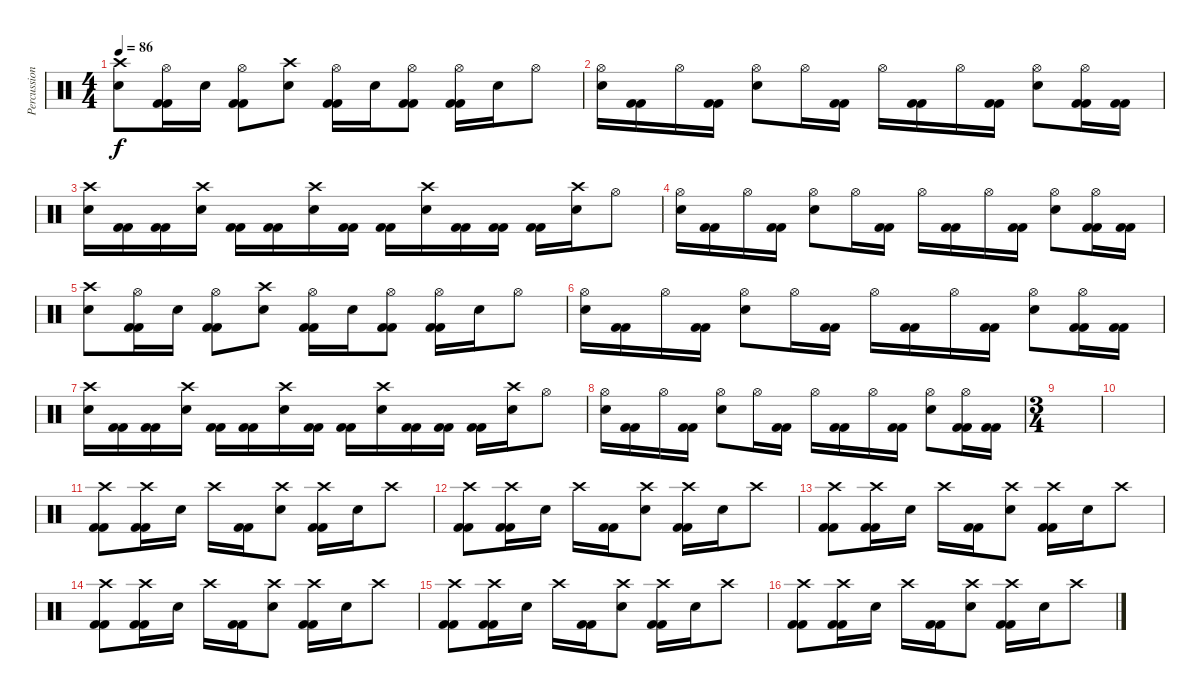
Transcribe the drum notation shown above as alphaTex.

\track ("Percussion" "Percussion") {instrument percussion}
\staff {score}
\articulation defaults
\ts (4 4)
\tempo 86
\clef neutral
\ks c
("Crash high (hit)" "Snare (hit) 2").8{dy f} ("Hi-Hat (open)" "Kick (hit) 2" "Kick (hit) 2").16 "Snare (hit) 2".16 ("Hi-Hat (open)" "Kick (hit) 2" "Kick (hit) 2").8 ("Crash high (hit)" "Snare (hit) 2").8 ("Hi-Hat (open)" "Kick (hit) 2" "Kick (hit) 2").16 "Snare (hit) 2".16 ("Hi-Hat (open)" "Kick (hit) 2" "Kick (hit) 2").8 ("Hi-Hat (open)" "Kick (hit) 2" "Kick (hit) 2").16 "Snare (hit) 2".16 "Hi-Hat (open)".8 |
("Hi-Hat (open)" "Snare (hit) 2").16 ("Kick (hit) 2" "Kick (hit) 2").16 "Hi-Hat (open)".16 ("Kick (hit) 2" "Kick (hit) 2").16 ("Hi-Hat (open)" "Snare (hit) 2").8 "Hi-Hat (open)".16 ("Kick (hit) 2" "Kick (hit) 2").16 "Hi-Hat (open)".16 ("Kick (hit) 2" "Kick (hit) 2").16 "Hi-Hat (open)".16 ("Kick (hit) 2" "Kick (hit) 2").16 ("Hi-Hat (open)" "Snare (hit) 2").8 ("Hi-Hat (open)" "Kick (hit) 2" "Kick (hit) 2").16 ("Kick (hit) 2" "Kick (hit) 2").16 |
("Crash high (hit)" "Snare (hit) 2").16 ("Kick (hit) 2" "Kick (hit) 2").16 ("Kick (hit) 2" "Kick (hit) 2").16 ("Crash high (hit)" "Snare (hit) 2").16 ("Kick (hit) 2" "Kick (hit) 2").16 ("Kick (hit) 2" "Kick (hit) 2").16 ("Crash high (hit)" "Snare (hit) 2").16 ("Kick (hit) 2" "Kick (hit) 2").16 ("Kick (hit) 2" "Kick (hit) 2").16 ("Crash high (hit)" "Snare (hit) 2").16 ("Kick (hit) 2" "Kick (hit) 2").16 ("Kick (hit) 2" "Kick (hit) 2").16 ("Kick (hit) 2" "Kick (hit) 2").16 ("Crash high (hit)" "Snare (hit) 2").16 "Hi-Hat (open)".8 |
("Hi-Hat (open)" "Snare (hit) 2").16 ("Kick (hit) 2" "Kick (hit) 2").16 "Hi-Hat (open)".16 ("Kick (hit) 2" "Kick (hit) 2").16 ("Hi-Hat (open)" "Snare (hit) 2").8 "Hi-Hat (open)".16 ("Kick (hit) 2" "Kick (hit) 2").16 "Hi-Hat (open)".16 ("Kick (hit) 2" "Kick (hit) 2").16 "Hi-Hat (open)".16 ("Kick (hit) 2" "Kick (hit) 2").16 ("Hi-Hat (open)" "Snare (hit) 2").8 ("Hi-Hat (open)" "Kick (hit) 2" "Kick (hit) 2").16 ("Kick (hit) 2" "Kick (hit) 2").16 |
("Crash high (hit)" "Snare (hit) 2").8 ("Hi-Hat (open)" "Kick (hit) 2" "Kick (hit) 2").16 "Snare (hit) 2".16 ("Hi-Hat (open)" "Kick (hit) 2" "Kick (hit) 2").8 ("Crash high (hit)" "Snare (hit) 2").8 ("Hi-Hat (open)" "Kick (hit) 2" "Kick (hit) 2").16 "Snare (hit) 2".16 ("Hi-Hat (open)" "Kick (hit) 2" "Kick (hit) 2").8 ("Hi-Hat (open)" "Kick (hit) 2" "Kick (hit) 2").16 "Snare (hit) 2".16 "Hi-Hat (open)".8 |
("Hi-Hat (open)" "Snare (hit) 2").16 ("Kick (hit) 2" "Kick (hit) 2").16 "Hi-Hat (open)".16 ("Kick (hit) 2" "Kick (hit) 2").16 ("Hi-Hat (open)" "Snare (hit) 2").8 "Hi-Hat (open)".16 ("Kick (hit) 2" "Kick (hit) 2").16 "Hi-Hat (open)".16 ("Kick (hit) 2" "Kick (hit) 2").16 "Hi-Hat (open)".16 ("Kick (hit) 2" "Kick (hit) 2").16 ("Hi-Hat (open)" "Snare (hit) 2").8 ("Hi-Hat (open)" "Kick (hit) 2" "Kick (hit) 2").16 ("Kick (hit) 2" "Kick (hit) 2").16 |
("Crash high (hit)" "Snare (hit) 2").16 ("Kick (hit) 2" "Kick (hit) 2").16 ("Kick (hit) 2" "Kick (hit) 2").16 ("Crash high (hit)" "Snare (hit) 2").16 ("Kick (hit) 2" "Kick (hit) 2").16 ("Kick (hit) 2" "Kick (hit) 2").16 ("Crash high (hit)" "Snare (hit) 2").16 ("Kick (hit) 2" "Kick (hit) 2").16 ("Kick (hit) 2" "Kick (hit) 2").16 ("Crash high (hit)" "Snare (hit) 2").16 ("Kick (hit) 2" "Kick (hit) 2").16 ("Kick (hit) 2" "Kick (hit) 2").16 ("Kick (hit) 2" "Kick (hit) 2").16 ("Crash high (hit)" "Snare (hit) 2").16 "Hi-Hat (open)".8 |
("Hi-Hat (open)" "Snare (hit) 2").16 ("Kick (hit) 2" "Kick (hit) 2").16 "Hi-Hat (open)".16 ("Kick (hit) 2" "Kick (hit) 2").16 ("Hi-Hat (open)" "Snare (hit) 2").8 "Hi-Hat (open)".16 ("Kick (hit) 2" "Kick (hit) 2").16 "Hi-Hat (open)".16 ("Kick (hit) 2" "Kick (hit) 2").16 "Hi-Hat (open)".16 ("Kick (hit) 2" "Kick (hit) 2").16 ("Hi-Hat (open)" "Snare (hit) 2").8 ("Hi-Hat (open)" "Kick (hit) 2" "Kick (hit) 2").16 ("Kick (hit) 2" "Kick (hit) 2").16 |
\ts (3 4)
|
|
("Crash high (hit)" "Kick (hit) 2" "Kick (hit) 2").8 ("Crash high (hit)" "Kick (hit) 2" "Kick (hit) 2").16 "Snare (hit) 2".16 "Crash high (hit)".16 ("Kick (hit) 2" "Kick (hit) 2").16 ("Crash high (hit)" "Snare (hit) 2").8 ("Crash high (hit)" "Kick (hit) 2" "Kick (hit) 2").16 "Snare (hit) 2".16 "Crash high (hit)".8 |
("Crash high (hit)" "Kick (hit) 2" "Kick (hit) 2").8 ("Crash high (hit)" "Kick (hit) 2" "Kick (hit) 2").16 "Snare (hit) 2".16 "Crash high (hit)".16 ("Kick (hit) 2" "Kick (hit) 2").16 ("Crash high (hit)" "Snare (hit) 2").8 ("Crash high (hit)" "Kick (hit) 2" "Kick (hit) 2").16 "Snare (hit) 2".16 "Crash high (hit)".8 |
("Crash high (hit)" "Kick (hit) 2" "Kick (hit) 2").8 ("Crash high (hit)" "Kick (hit) 2" "Kick (hit) 2").16 "Snare (hit) 2".16 "Crash high (hit)".16 ("Kick (hit) 2" "Kick (hit) 2").16 ("Crash high (hit)" "Snare (hit) 2").8 ("Crash high (hit)" "Kick (hit) 2" "Kick (hit) 2").16 "Snare (hit) 2".16 "Crash high (hit)".8 |
("Crash high (hit)" "Kick (hit) 2" "Kick (hit) 2").8 ("Crash high (hit)" "Kick (hit) 2" "Kick (hit) 2").16 "Snare (hit) 2".16 "Crash high (hit)".16 ("Kick (hit) 2" "Kick (hit) 2").16 ("Crash high (hit)" "Snare (hit) 2").8 ("Crash high (hit)" "Kick (hit) 2" "Kick (hit) 2").16 "Snare (hit) 2".16 "Crash high (hit)".8 |
("Crash high (hit)" "Kick (hit) 2" "Kick (hit) 2").8 ("Crash high (hit)" "Kick (hit) 2" "Kick (hit) 2").16 "Snare (hit) 2".16 "Crash high (hit)".16 ("Kick (hit) 2" "Kick (hit) 2").16 ("Crash high (hit)" "Snare (hit) 2").8 ("Crash high (hit)" "Kick (hit) 2" "Kick (hit) 2").16 "Snare (hit) 2".16 "Crash high (hit)".8 |
("Crash high (hit)" "Kick (hit) 2" "Kick (hit) 2").8 ("Crash high (hit)" "Kick (hit) 2" "Kick (hit) 2").16 "Snare (hit) 2".16 "Crash high (hit)".16 ("Kick (hit) 2" "Kick (hit) 2").16 ("Crash high (hit)" "Snare (hit) 2").8 ("Crash high (hit)" "Kick (hit) 2" "Kick (hit) 2").16 "Snare (hit) 2".16 "Crash high (hit)".8
